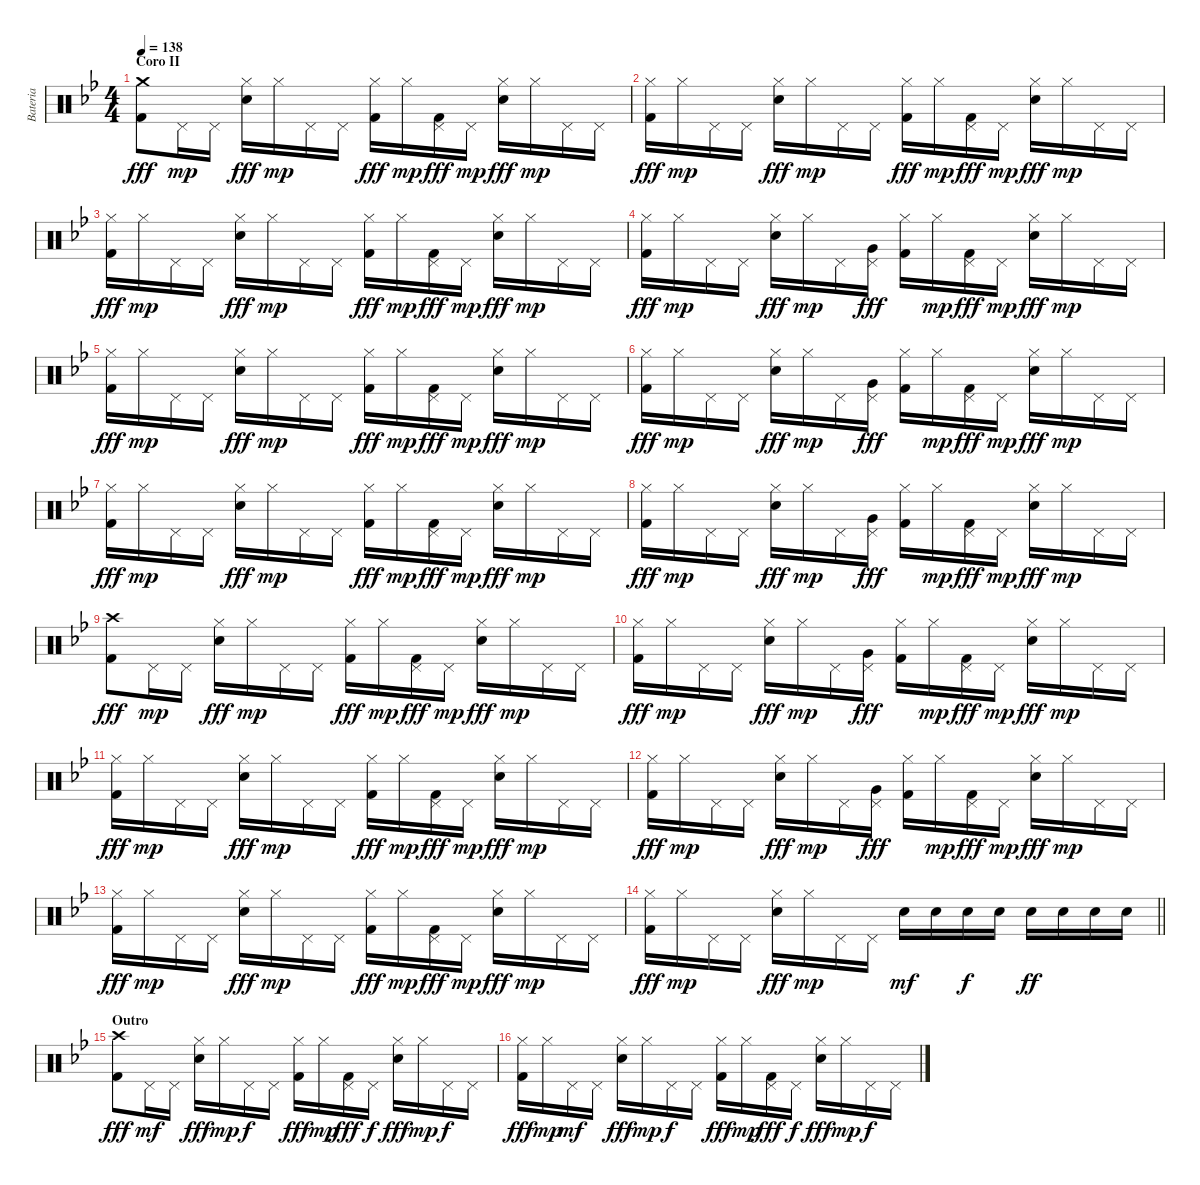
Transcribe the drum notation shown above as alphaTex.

\track ("Bateria" "Bateria") {instrument percussion}
\staff {score}
\articulation defaults
\ts (4 4)
\section ("" "Coro II")
\tempo 138
\clef neutral
\ks bb
("Crash medium (hit)" "Kick (hit) 2").8{dy fff} "Pedal Hi-Hat (hit)".16{dy mp} "Pedal Hi-Hat (hit)".16 ("Hi-Hat (closed)" "Electric Snare (hit)").16{dy fff} "Hi-Hat (closed)".16{dy mp} "Pedal Hi-Hat (hit)".16 "Pedal Hi-Hat (hit)".16 ("Hi-Hat (closed)" "Kick (hit) 2").16{dy fff} "Hi-Hat (closed)".16{dy mp} ("Pedal Hi-Hat (hit)" "Kick (hit) 2").16{dy fff} "Pedal Hi-Hat (hit)".16{dy mp} ("Hi-Hat (closed)" "Electric Snare (hit)").16{dy fff} "Hi-Hat (closed)".16{dy mp} "Pedal Hi-Hat (hit)".16 "Pedal Hi-Hat (hit)".16 |
("Hi-Hat (closed)" "Kick (hit) 2").16{dy fff} "Hi-Hat (closed)".16{dy mp} "Pedal Hi-Hat (hit)".16 "Pedal Hi-Hat (hit)".16 ("Hi-Hat (closed)" "Electric Snare (hit)").16{dy fff} "Hi-Hat (closed)".16{dy mp} "Pedal Hi-Hat (hit)".16 "Pedal Hi-Hat (hit)".16 ("Hi-Hat (closed)" "Kick (hit) 2").16{dy fff} "Hi-Hat (closed)".16{dy mp} ("Pedal Hi-Hat (hit)" "Kick (hit) 2").16{dy fff} "Pedal Hi-Hat (hit)".16{dy mp} ("Hi-Hat (closed)" "Electric Snare (hit)").16{dy fff} "Hi-Hat (closed)".16{dy mp} "Pedal Hi-Hat (hit)".16 "Pedal Hi-Hat (hit)".16 |
("Hi-Hat (closed)" "Kick (hit) 2").16{dy fff} "Hi-Hat (closed)".16{dy mp} "Pedal Hi-Hat (hit)".16 "Pedal Hi-Hat (hit)".16 ("Hi-Hat (closed)" "Electric Snare (hit)").16{dy fff} "Hi-Hat (closed)".16{dy mp} "Pedal Hi-Hat (hit)".16 "Pedal Hi-Hat (hit)".16 ("Hi-Hat (closed)" "Kick (hit) 2").16{dy fff} "Hi-Hat (closed)".16{dy mp} ("Pedal Hi-Hat (hit)" "Kick (hit) 2").16{dy fff} "Pedal Hi-Hat (hit)".16{dy mp} ("Hi-Hat (closed)" "Electric Snare (hit)").16{dy fff} "Hi-Hat (closed)".16{dy mp} "Pedal Hi-Hat (hit)".16 "Pedal Hi-Hat (hit)".16 |
("Hi-Hat (closed)" "Kick (hit) 2").16{dy fff} "Hi-Hat (closed)".16{dy mp} "Pedal Hi-Hat (hit)".16 "Pedal Hi-Hat (hit)".16 ("Hi-Hat (closed)" "Electric Snare (hit)").16{dy fff} "Hi-Hat (closed)".16{dy mp} "Pedal Hi-Hat (hit)".16 ("Pedal Hi-Hat (hit)" "Very Low Tom (hit)").16{dy fff} ("Hi-Hat (closed)" "Kick (hit) 2").16 "Hi-Hat (closed)".16{dy mp} ("Pedal Hi-Hat (hit)" "Kick (hit) 2").16{dy fff} "Pedal Hi-Hat (hit)".16{dy mp} ("Hi-Hat (closed)" "Electric Snare (hit)").16{dy fff} "Hi-Hat (closed)".16{dy mp} "Pedal Hi-Hat (hit)".16 "Pedal Hi-Hat (hit)".16 |
("Hi-Hat (closed)" "Kick (hit) 2").16{dy fff} "Hi-Hat (closed)".16{dy mp} "Pedal Hi-Hat (hit)".16 "Pedal Hi-Hat (hit)".16 ("Hi-Hat (closed)" "Electric Snare (hit)").16{dy fff} "Hi-Hat (closed)".16{dy mp} "Pedal Hi-Hat (hit)".16 "Pedal Hi-Hat (hit)".16 ("Hi-Hat (closed)" "Kick (hit) 2").16{dy fff} "Hi-Hat (closed)".16{dy mp} ("Pedal Hi-Hat (hit)" "Kick (hit) 2").16{dy fff} "Pedal Hi-Hat (hit)".16{dy mp} ("Hi-Hat (closed)" "Electric Snare (hit)").16{dy fff} "Hi-Hat (closed)".16{dy mp} "Pedal Hi-Hat (hit)".16 "Pedal Hi-Hat (hit)".16 |
("Hi-Hat (closed)" "Kick (hit) 2").16{dy fff} "Hi-Hat (closed)".16{dy mp} "Pedal Hi-Hat (hit)".16 "Pedal Hi-Hat (hit)".16 ("Hi-Hat (closed)" "Electric Snare (hit)").16{dy fff} "Hi-Hat (closed)".16{dy mp} "Pedal Hi-Hat (hit)".16 ("Pedal Hi-Hat (hit)" "Very Low Tom (hit)").16{dy fff} ("Hi-Hat (closed)" "Kick (hit) 2").16 "Hi-Hat (closed)".16{dy mp} ("Pedal Hi-Hat (hit)" "Kick (hit) 2").16{dy fff} "Pedal Hi-Hat (hit)".16{dy mp} ("Hi-Hat (closed)" "Electric Snare (hit)").16{dy fff} "Hi-Hat (closed)".16{dy mp} "Pedal Hi-Hat (hit)".16 "Pedal Hi-Hat (hit)".16 |
("Hi-Hat (closed)" "Kick (hit) 2").16{dy fff} "Hi-Hat (closed)".16{dy mp} "Pedal Hi-Hat (hit)".16 "Pedal Hi-Hat (hit)".16 ("Hi-Hat (closed)" "Electric Snare (hit)").16{dy fff} "Hi-Hat (closed)".16{dy mp} "Pedal Hi-Hat (hit)".16 "Pedal Hi-Hat (hit)".16 ("Hi-Hat (closed)" "Kick (hit) 2").16{dy fff} "Hi-Hat (closed)".16{dy mp} ("Pedal Hi-Hat (hit)" "Kick (hit) 2").16{dy fff} "Pedal Hi-Hat (hit)".16{dy mp} ("Hi-Hat (closed)" "Electric Snare (hit)").16{dy fff} "Hi-Hat (closed)".16{dy mp} "Pedal Hi-Hat (hit)".16 "Pedal Hi-Hat (hit)".16 |
("Hi-Hat (closed)" "Kick (hit) 2").16{dy fff} "Hi-Hat (closed)".16{dy mp} "Pedal Hi-Hat (hit)".16 "Pedal Hi-Hat (hit)".16 ("Hi-Hat (closed)" "Electric Snare (hit)").16{dy fff} "Hi-Hat (closed)".16{dy mp} "Pedal Hi-Hat (hit)".16 ("Pedal Hi-Hat (hit)" "Very Low Tom (hit)").16{dy fff} ("Hi-Hat (closed)" "Kick (hit) 2").16 "Hi-Hat (closed)".16{dy mp} ("Pedal Hi-Hat (hit)" "Kick (hit) 2").16{dy fff} "Pedal Hi-Hat (hit)".16{dy mp} ("Hi-Hat (closed)" "Electric Snare (hit)").16{dy fff} "Hi-Hat (closed)".16{dy mp} "Pedal Hi-Hat (hit)".16 "Pedal Hi-Hat (hit)".16 |
("Crash high (hit)" "Kick (hit) 2").8{dy fff} "Pedal Hi-Hat (hit)".16{dy mp} "Pedal Hi-Hat (hit)".16 ("Hi-Hat (closed)" "Electric Snare (hit)").16{dy fff} "Hi-Hat (closed)".16{dy mp} "Pedal Hi-Hat (hit)".16 "Pedal Hi-Hat (hit)".16 ("Hi-Hat (closed)" "Kick (hit) 2").16{dy fff} "Hi-Hat (closed)".16{dy mp} ("Pedal Hi-Hat (hit)" "Kick (hit) 2").16{dy fff} "Pedal Hi-Hat (hit)".16{dy mp} ("Hi-Hat (closed)" "Electric Snare (hit)").16{dy fff} "Hi-Hat (closed)".16{dy mp} "Pedal Hi-Hat (hit)".16 "Pedal Hi-Hat (hit)".16 |
("Hi-Hat (closed)" "Kick (hit) 2").16{dy fff} "Hi-Hat (closed)".16{dy mp} "Pedal Hi-Hat (hit)".16 "Pedal Hi-Hat (hit)".16 ("Hi-Hat (closed)" "Electric Snare (hit)").16{dy fff} "Hi-Hat (closed)".16{dy mp} "Pedal Hi-Hat (hit)".16 ("Pedal Hi-Hat (hit)" "Very Low Tom (hit)").16{dy fff} ("Hi-Hat (closed)" "Kick (hit) 2").16 "Hi-Hat (closed)".16{dy mp} ("Pedal Hi-Hat (hit)" "Kick (hit) 2").16{dy fff} "Pedal Hi-Hat (hit)".16{dy mp} ("Hi-Hat (closed)" "Electric Snare (hit)").16{dy fff} "Hi-Hat (closed)".16{dy mp} "Pedal Hi-Hat (hit)".16 "Pedal Hi-Hat (hit)".16 |
("Hi-Hat (closed)" "Kick (hit) 2").16{dy fff} "Hi-Hat (closed)".16{dy mp} "Pedal Hi-Hat (hit)".16 "Pedal Hi-Hat (hit)".16 ("Hi-Hat (closed)" "Electric Snare (hit)").16{dy fff} "Hi-Hat (closed)".16{dy mp} "Pedal Hi-Hat (hit)".16 "Pedal Hi-Hat (hit)".16 ("Hi-Hat (closed)" "Kick (hit) 2").16{dy fff} "Hi-Hat (closed)".16{dy mp} ("Pedal Hi-Hat (hit)" "Kick (hit) 2").16{dy fff} "Pedal Hi-Hat (hit)".16{dy mp} ("Hi-Hat (closed)" "Electric Snare (hit)").16{dy fff} "Hi-Hat (closed)".16{dy mp} "Pedal Hi-Hat (hit)".16 "Pedal Hi-Hat (hit)".16 |
("Hi-Hat (closed)" "Kick (hit) 2").16{dy fff} "Hi-Hat (closed)".16{dy mp} "Pedal Hi-Hat (hit)".16 "Pedal Hi-Hat (hit)".16 ("Hi-Hat (closed)" "Electric Snare (hit)").16{dy fff} "Hi-Hat (closed)".16{dy mp} "Pedal Hi-Hat (hit)".16 ("Pedal Hi-Hat (hit)" "Very Low Tom (hit)").16{dy fff} ("Hi-Hat (closed)" "Kick (hit) 2").16 "Hi-Hat (closed)".16{dy mp} ("Pedal Hi-Hat (hit)" "Kick (hit) 2").16{dy fff} "Pedal Hi-Hat (hit)".16{dy mp} ("Hi-Hat (closed)" "Electric Snare (hit)").16{dy fff} "Hi-Hat (closed)".16{dy mp} "Pedal Hi-Hat (hit)".16 "Pedal Hi-Hat (hit)".16 |
("Hi-Hat (closed)" "Kick (hit) 2").16{dy fff} "Hi-Hat (closed)".16{dy mp} "Pedal Hi-Hat (hit)".16 "Pedal Hi-Hat (hit)".16 ("Hi-Hat (closed)" "Electric Snare (hit)").16{dy fff} "Hi-Hat (closed)".16{dy mp} "Pedal Hi-Hat (hit)".16 "Pedal Hi-Hat (hit)".16 ("Hi-Hat (closed)" "Kick (hit) 2").16{dy fff} "Hi-Hat (closed)".16{dy mp} ("Pedal Hi-Hat (hit)" "Kick (hit) 2").16{dy fff} "Pedal Hi-Hat (hit)".16{dy mp} ("Hi-Hat (closed)" "Electric Snare (hit)").16{dy fff} "Hi-Hat (closed)".16{dy mp} "Pedal Hi-Hat (hit)".16 "Pedal Hi-Hat (hit)".16 |
\barLineRight lightlight
("Hi-Hat (closed)" "Kick (hit) 2").16{dy fff} "Hi-Hat (closed)".16{dy mp} "Pedal Hi-Hat (hit)".16 "Pedal Hi-Hat (hit)".16 ("Hi-Hat (closed)" "Electric Snare (hit)").16{dy fff} "Hi-Hat (closed)".16{dy mp} "Pedal Hi-Hat (hit)".16 "Pedal Hi-Hat (hit)".16 "Electric Snare (hit)".16{dy mf} "Electric Snare (hit)".16 "Electric Snare (hit)".16{dy f} "Electric Snare (hit)".16 "Electric Snare (hit)".16{dy ff} "Electric Snare (hit)".16 "Electric Snare (hit)".16 "Electric Snare (hit)".16 |
\section ("" "Outro")
("Crash high (hit)" "Kick (hit) 2").8{dy fff} "Pedal Hi-Hat (hit)".16{dy mf} "Pedal Hi-Hat (hit)".16 ("Hi-Hat (closed)" "Snare (hit) 2").16{dy fff} "Hi-Hat (closed)".16{dy mp} "Pedal Hi-Hat (hit)".16{dy f} "Pedal Hi-Hat (hit)".16 ("Hi-Hat (closed)" "Kick (hit) 2").16{dy fff} "Hi-Hat (closed)".16{dy mp} ("Pedal Hi-Hat (hit)" "Kick (hit) 2").16{dy fff} "Pedal Hi-Hat (hit)".16{dy f} ("Hi-Hat (closed)" "Snare (hit) 2").16{dy fff} "Hi-Hat (closed)".16{dy mp} "Pedal Hi-Hat (hit)".16{dy f} "Pedal Hi-Hat (hit)".16 |
("Hi-Hat (closed)" "Kick (hit) 2").16{dy fff} "Hi-Hat (closed)".16{dy mp} "Pedal Hi-Hat (hit)".16{dy mf} "Pedal Hi-Hat (hit)".16 ("Hi-Hat (closed)" "Snare (hit) 2").16{dy fff} "Hi-Hat (closed)".16{dy mp} "Pedal Hi-Hat (hit)".16{dy f} "Pedal Hi-Hat (hit)".16 ("Hi-Hat (closed)" "Kick (hit) 2").16{dy fff} "Hi-Hat (closed)".16{dy mp} ("Pedal Hi-Hat (hit)" "Kick (hit) 2").16{dy fff} "Pedal Hi-Hat (hit)".16{dy f} ("Hi-Hat (closed)" "Snare (hit) 2").16{dy fff} "Hi-Hat (closed)".16{dy mp} "Pedal Hi-Hat (hit)".16{dy f} "Pedal Hi-Hat (hit)".16
